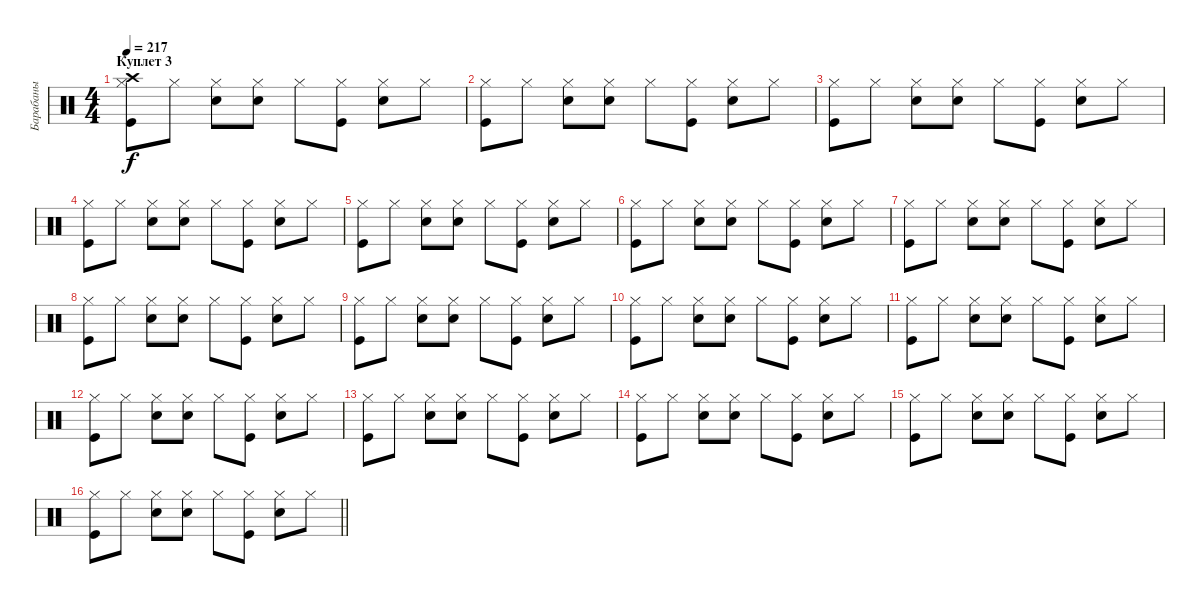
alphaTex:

\track ("Барабаны" "Барабаны") {instrument percussion}
\staff {score}
\articulation defaults
\ts (4 4)
\section ("" "Куплет 3")
\tempo 217
\clef neutral
\ks c
("Kick (hit)" "Hi-Hat (closed)" "Crash high (hit)").8{dy f} "Hi-Hat (closed)".8 ("Snare (hit) 2" "Hi-Hat (closed)").8 ("Snare (hit) 2" "Hi-Hat (closed)").8 "Hi-Hat (closed)".8 ("Kick (hit)" "Hi-Hat (closed)").8 ("Snare (hit) 2" "Hi-Hat (closed)").8 "Hi-Hat (closed)".8 |
("Kick (hit)" "Hi-Hat (closed)").8 "Hi-Hat (closed)".8 ("Snare (hit) 2" "Hi-Hat (closed)").8 ("Snare (hit) 2" "Hi-Hat (closed)").8 "Hi-Hat (closed)".8 ("Kick (hit)" "Hi-Hat (closed)").8 ("Snare (hit) 2" "Hi-Hat (closed)").8 "Hi-Hat (closed)".8 |
("Kick (hit)" "Hi-Hat (closed)").8 "Hi-Hat (closed)".8 ("Snare (hit) 2" "Hi-Hat (closed)").8 ("Snare (hit) 2" "Hi-Hat (closed)").8 "Hi-Hat (closed)".8 ("Kick (hit)" "Hi-Hat (closed)").8 ("Snare (hit) 2" "Hi-Hat (closed)").8 "Hi-Hat (closed)".8 |
("Kick (hit)" "Hi-Hat (closed)").8 "Hi-Hat (closed)".8 ("Snare (hit) 2" "Hi-Hat (closed)").8 ("Snare (hit) 2" "Hi-Hat (closed)").8 "Hi-Hat (closed)".8 ("Kick (hit)" "Hi-Hat (closed)").8 ("Snare (hit) 2" "Hi-Hat (closed)").8 "Hi-Hat (closed)".8 |
("Kick (hit)" "Hi-Hat (closed)").8 "Hi-Hat (closed)".8 ("Snare (hit) 2" "Hi-Hat (closed)").8 ("Snare (hit) 2" "Hi-Hat (closed)").8 "Hi-Hat (closed)".8 ("Kick (hit)" "Hi-Hat (closed)").8 ("Snare (hit) 2" "Hi-Hat (closed)").8 "Hi-Hat (closed)".8 |
("Kick (hit)" "Hi-Hat (closed)").8 "Hi-Hat (closed)".8 ("Snare (hit) 2" "Hi-Hat (closed)").8 ("Snare (hit) 2" "Hi-Hat (closed)").8 "Hi-Hat (closed)".8 ("Kick (hit)" "Hi-Hat (closed)").8 ("Snare (hit) 2" "Hi-Hat (closed)").8 "Hi-Hat (closed)".8 |
("Kick (hit)" "Hi-Hat (closed)").8 "Hi-Hat (closed)".8 ("Snare (hit) 2" "Hi-Hat (closed)").8 ("Snare (hit) 2" "Hi-Hat (closed)").8 "Hi-Hat (closed)".8 ("Kick (hit)" "Hi-Hat (closed)").8 ("Snare (hit) 2" "Hi-Hat (closed)").8 "Hi-Hat (closed)".8 |
("Kick (hit)" "Hi-Hat (closed)").8 "Hi-Hat (closed)".8 ("Snare (hit) 2" "Hi-Hat (closed)").8 ("Snare (hit) 2" "Hi-Hat (closed)").8 "Hi-Hat (closed)".8 ("Kick (hit)" "Hi-Hat (closed)").8 ("Snare (hit) 2" "Hi-Hat (closed)").8 "Hi-Hat (closed)".8 |
("Kick (hit)" "Hi-Hat (closed)").8 "Hi-Hat (closed)".8 ("Snare (hit) 2" "Hi-Hat (closed)").8 ("Snare (hit) 2" "Hi-Hat (closed)").8 "Hi-Hat (closed)".8 ("Kick (hit)" "Hi-Hat (closed)").8 ("Snare (hit) 2" "Hi-Hat (closed)").8 "Hi-Hat (closed)".8 |
("Kick (hit)" "Hi-Hat (closed)").8 "Hi-Hat (closed)".8 ("Snare (hit) 2" "Hi-Hat (closed)").8 ("Snare (hit) 2" "Hi-Hat (closed)").8 "Hi-Hat (closed)".8 ("Kick (hit)" "Hi-Hat (closed)").8 ("Snare (hit) 2" "Hi-Hat (closed)").8 "Hi-Hat (closed)".8 |
("Kick (hit)" "Hi-Hat (closed)").8 "Hi-Hat (closed)".8 ("Snare (hit) 2" "Hi-Hat (closed)").8 ("Snare (hit) 2" "Hi-Hat (closed)").8 "Hi-Hat (closed)".8 ("Kick (hit)" "Hi-Hat (closed)").8 ("Snare (hit) 2" "Hi-Hat (closed)").8 "Hi-Hat (closed)".8 |
("Kick (hit)" "Hi-Hat (closed)").8 "Hi-Hat (closed)".8 ("Snare (hit) 2" "Hi-Hat (closed)").8 ("Snare (hit) 2" "Hi-Hat (closed)").8 "Hi-Hat (closed)".8 ("Kick (hit)" "Hi-Hat (closed)").8 ("Snare (hit) 2" "Hi-Hat (closed)").8 "Hi-Hat (closed)".8 |
("Kick (hit)" "Hi-Hat (closed)").8 "Hi-Hat (closed)".8 ("Snare (hit) 2" "Hi-Hat (closed)").8 ("Snare (hit) 2" "Hi-Hat (closed)").8 "Hi-Hat (closed)".8 ("Kick (hit)" "Hi-Hat (closed)").8 ("Snare (hit) 2" "Hi-Hat (closed)").8 "Hi-Hat (closed)".8 |
("Kick (hit)" "Hi-Hat (closed)").8 "Hi-Hat (closed)".8 ("Snare (hit) 2" "Hi-Hat (closed)").8 ("Snare (hit) 2" "Hi-Hat (closed)").8 "Hi-Hat (closed)".8 ("Kick (hit)" "Hi-Hat (closed)").8 ("Snare (hit) 2" "Hi-Hat (closed)").8 "Hi-Hat (closed)".8 |
("Kick (hit)" "Hi-Hat (closed)").8 "Hi-Hat (closed)".8 ("Snare (hit) 2" "Hi-Hat (closed)").8 ("Snare (hit) 2" "Hi-Hat (closed)").8 "Hi-Hat (closed)".8 ("Kick (hit)" "Hi-Hat (closed)").8 ("Snare (hit) 2" "Hi-Hat (closed)").8 "Hi-Hat (closed)".8 |
\barLineRight lightlight
("Kick (hit)" "Hi-Hat (closed)").8 "Hi-Hat (closed)".8 ("Snare (hit) 2" "Hi-Hat (closed)").8 ("Snare (hit) 2" "Hi-Hat (closed)").8 "Hi-Hat (closed)".8 ("Kick (hit)" "Hi-Hat (closed)").8 ("Snare (hit) 2" "Hi-Hat (closed)").8 "Hi-Hat (closed)".8
